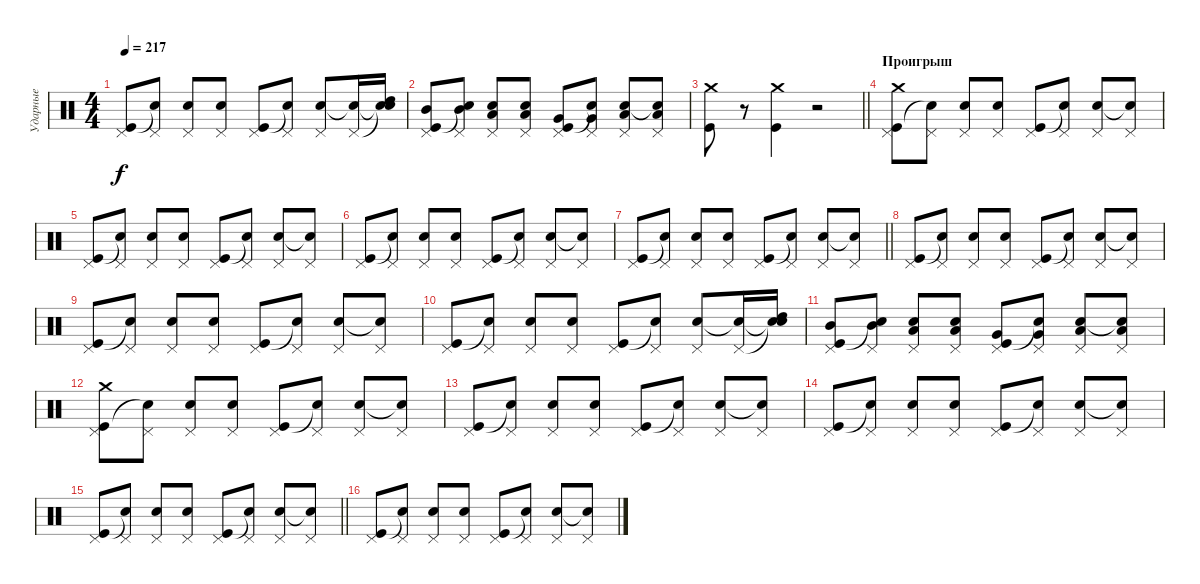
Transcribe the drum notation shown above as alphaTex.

\track ("Ударные" "Ударные") {instrument percussion}
\staff {score}
\articulation defaults
\ts (4 4)
\tempo 217
\clef neutral
\ks c
("Pedal Hi-Hat (hit)" "Kick (hit)").8{dy f} ("Pedal Hi-Hat (hit)" "Snare (hit)"{t}).8 ("Pedal Hi-Hat (hit)" "Snare (hit) 2").8 ("Pedal Hi-Hat (hit)" "Snare (hit) 2").8 ("Pedal Hi-Hat (hit)" "Kick (hit)").8 ("Pedal Hi-Hat (hit)" "Snare (hit)"{t}).8 ("Pedal Hi-Hat (hit)" "Snare (hit) 2").8 ("Pedal Hi-Hat (hit)" "Snare (hit)"{t}).16 ("Snare (hit)"{t} "Snare (hit)"{t} "High Tom (hit)").16 |
("Pedal Hi-Hat (hit)" "Kick (hit)" "Mid Tom (hit)").8 ("Pedal Hi-Hat (hit)" "Snare (hit)"{t} "Mid Tom (hit)").8 ("Pedal Hi-Hat (hit)" "Snare (hit) 2" "Low Tom (hit)").8 ("Pedal Hi-Hat (hit)" "Snare (hit) 2" "Low Tom (hit)").8 ("Pedal Hi-Hat (hit)" "Kick (hit)" "Very Low Tom (hit)").8 ("Pedal Hi-Hat (hit)" "Snare (hit)"{t} "Very Low Tom (hit)").8 ("Pedal Hi-Hat (hit)" "Snare (hit) 2" "Low Floor Tom (hit)").8 ("Pedal Hi-Hat (hit)" "Snare (hit)"{t} "Low Floor Tom (hit)").8 |
\barLineRight lightlight
("Kick (hit)" "Crash medium (hit)").8 r.8 ("Kick (hit)" "Crash medium (hit)").4 r.2 |
\section ("" "Проигрыш")
("Pedal Hi-Hat (hit)" "Kick (hit)" "Crash medium (hit)").8 ("Pedal Hi-Hat (hit)" "Snare (hit)"{t}).8 ("Pedal Hi-Hat (hit)" "Snare (hit) 2").8 ("Pedal Hi-Hat (hit)" "Snare (hit) 2").8 ("Pedal Hi-Hat (hit)" "Kick (hit)").8 ("Pedal Hi-Hat (hit)" "Snare (hit)"{t}).8 ("Pedal Hi-Hat (hit)" "Snare (hit) 2").8 ("Pedal Hi-Hat (hit)" "Snare (hit)"{t}).8 |
("Pedal Hi-Hat (hit)" "Kick (hit)").8 ("Pedal Hi-Hat (hit)" "Snare (hit)"{t}).8 ("Pedal Hi-Hat (hit)" "Snare (hit) 2").8 ("Pedal Hi-Hat (hit)" "Snare (hit) 2").8 ("Pedal Hi-Hat (hit)" "Kick (hit)").8 ("Pedal Hi-Hat (hit)" "Snare (hit)"{t}).8 ("Pedal Hi-Hat (hit)" "Snare (hit) 2").8 ("Pedal Hi-Hat (hit)" "Snare (hit)"{t}).8 |
("Pedal Hi-Hat (hit)" "Kick (hit)").8 ("Pedal Hi-Hat (hit)" "Snare (hit)"{t}).8 ("Pedal Hi-Hat (hit)" "Snare (hit) 2").8 ("Pedal Hi-Hat (hit)" "Snare (hit) 2").8 ("Pedal Hi-Hat (hit)" "Kick (hit)").8 ("Pedal Hi-Hat (hit)" "Snare (hit)"{t}).8 ("Pedal Hi-Hat (hit)" "Snare (hit) 2").8 ("Pedal Hi-Hat (hit)" "Snare (hit)"{t}).8 |
\barLineRight lightlight
("Pedal Hi-Hat (hit)" "Kick (hit)").8 ("Pedal Hi-Hat (hit)" "Snare (hit)"{t}).8 ("Pedal Hi-Hat (hit)" "Snare (hit) 2").8 ("Pedal Hi-Hat (hit)" "Snare (hit) 2").8 ("Pedal Hi-Hat (hit)" "Kick (hit)").8 ("Pedal Hi-Hat (hit)" "Snare (hit)"{t}).8 ("Pedal Hi-Hat (hit)" "Snare (hit) 2").8 ("Pedal Hi-Hat (hit)" "Snare (hit)"{t}).8 |
("Pedal Hi-Hat (hit)" "Kick (hit)").8 ("Pedal Hi-Hat (hit)" "Snare (hit)"{t}).8 ("Pedal Hi-Hat (hit)" "Snare (hit) 2").8 ("Pedal Hi-Hat (hit)" "Snare (hit) 2").8 ("Pedal Hi-Hat (hit)" "Kick (hit)").8 ("Pedal Hi-Hat (hit)" "Snare (hit)"{t}).8 ("Pedal Hi-Hat (hit)" "Snare (hit) 2").8 ("Pedal Hi-Hat (hit)" "Snare (hit)"{t}).8 |
("Pedal Hi-Hat (hit)" "Kick (hit)").8 ("Pedal Hi-Hat (hit)" "Snare (hit)"{t}).8 ("Pedal Hi-Hat (hit)" "Snare (hit) 2").8 ("Pedal Hi-Hat (hit)" "Snare (hit) 2").8 ("Pedal Hi-Hat (hit)" "Kick (hit)").8 ("Pedal Hi-Hat (hit)" "Snare (hit)"{t}).8 ("Pedal Hi-Hat (hit)" "Snare (hit) 2").8 ("Pedal Hi-Hat (hit)" "Snare (hit)"{t}).8 |
("Pedal Hi-Hat (hit)" "Kick (hit)").8 ("Pedal Hi-Hat (hit)" "Snare (hit)"{t}).8 ("Pedal Hi-Hat (hit)" "Snare (hit) 2").8 ("Pedal Hi-Hat (hit)" "Snare (hit) 2").8 ("Pedal Hi-Hat (hit)" "Kick (hit)").8 ("Pedal Hi-Hat (hit)" "Snare (hit)"{t}).8 ("Pedal Hi-Hat (hit)" "Snare (hit) 2").8 ("Pedal Hi-Hat (hit)" "Snare (hit)"{t}).16 ("Snare (hit)"{t} "Snare (hit)"{t} "High Tom (hit)").16 |
("Pedal Hi-Hat (hit)" "Kick (hit)" "Mid Tom (hit)").8 ("Pedal Hi-Hat (hit)" "Snare (hit)"{t} "Mid Tom (hit)").8 ("Pedal Hi-Hat (hit)" "Snare (hit) 2" "Low Tom (hit)").8 ("Pedal Hi-Hat (hit)" "Snare (hit) 2" "Low Tom (hit)").8 ("Pedal Hi-Hat (hit)" "Kick (hit)" "Very Low Tom (hit)").8 ("Pedal Hi-Hat (hit)" "Snare (hit)"{t} "Very Low Tom (hit)").8 ("Pedal Hi-Hat (hit)" "Snare (hit) 2" "Low Floor Tom (hit)").8 ("Pedal Hi-Hat (hit)" "Snare (hit)"{t} "Low Floor Tom (hit)").8 |
("Pedal Hi-Hat (hit)" "Kick (hit)" "Crash medium (hit)").8 ("Pedal Hi-Hat (hit)" "Snare (hit)"{t}).8 ("Pedal Hi-Hat (hit)" "Snare (hit) 2").8 ("Pedal Hi-Hat (hit)" "Snare (hit) 2").8 ("Pedal Hi-Hat (hit)" "Kick (hit)").8 ("Pedal Hi-Hat (hit)" "Snare (hit)"{t}).8 ("Pedal Hi-Hat (hit)" "Snare (hit) 2").8 ("Pedal Hi-Hat (hit)" "Snare (hit)"{t}).8 |
("Pedal Hi-Hat (hit)" "Kick (hit)").8 ("Pedal Hi-Hat (hit)" "Snare (hit)"{t}).8 ("Pedal Hi-Hat (hit)" "Snare (hit) 2").8 ("Pedal Hi-Hat (hit)" "Snare (hit) 2").8 ("Pedal Hi-Hat (hit)" "Kick (hit)").8 ("Pedal Hi-Hat (hit)" "Snare (hit)"{t}).8 ("Pedal Hi-Hat (hit)" "Snare (hit) 2").8 ("Pedal Hi-Hat (hit)" "Snare (hit)"{t}).8 |
("Pedal Hi-Hat (hit)" "Kick (hit)").8 ("Pedal Hi-Hat (hit)" "Snare (hit)"{t}).8 ("Pedal Hi-Hat (hit)" "Snare (hit) 2").8 ("Pedal Hi-Hat (hit)" "Snare (hit) 2").8 ("Pedal Hi-Hat (hit)" "Kick (hit)").8 ("Pedal Hi-Hat (hit)" "Snare (hit)"{t}).8 ("Pedal Hi-Hat (hit)" "Snare (hit) 2").8 ("Pedal Hi-Hat (hit)" "Snare (hit)"{t}).8 |
\barLineRight lightlight
("Pedal Hi-Hat (hit)" "Kick (hit)").8 ("Pedal Hi-Hat (hit)" "Snare (hit)"{t}).8 ("Pedal Hi-Hat (hit)" "Snare (hit) 2").8 ("Pedal Hi-Hat (hit)" "Snare (hit) 2").8 ("Pedal Hi-Hat (hit)" "Kick (hit)").8 ("Pedal Hi-Hat (hit)" "Snare (hit)"{t}).8 ("Pedal Hi-Hat (hit)" "Snare (hit) 2").8 ("Pedal Hi-Hat (hit)" "Snare (hit)"{t}).8 |
("Pedal Hi-Hat (hit)" "Kick (hit)").8 ("Pedal Hi-Hat (hit)" "Snare (hit)"{t}).8 ("Pedal Hi-Hat (hit)" "Snare (hit) 2").8 ("Pedal Hi-Hat (hit)" "Snare (hit) 2").8 ("Pedal Hi-Hat (hit)" "Kick (hit)").8 ("Pedal Hi-Hat (hit)" "Snare (hit)"{t}).8 ("Pedal Hi-Hat (hit)" "Snare (hit) 2").8 ("Pedal Hi-Hat (hit)" "Snare (hit)"{t}).8
